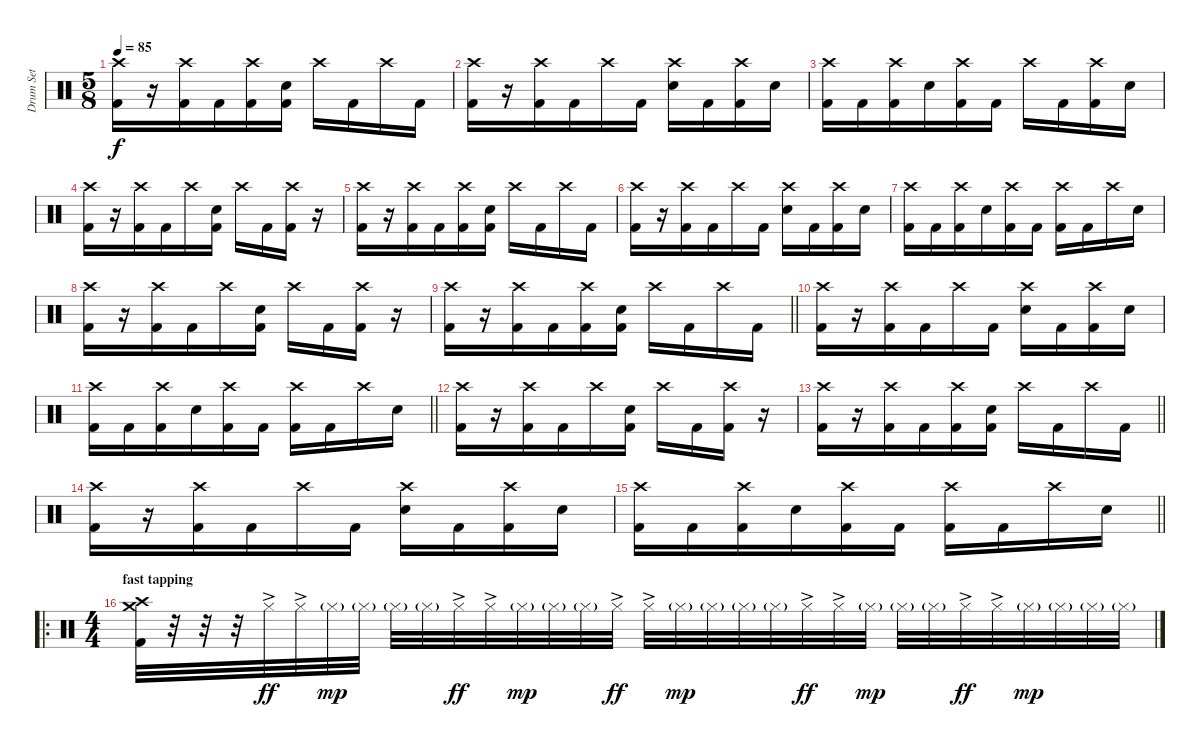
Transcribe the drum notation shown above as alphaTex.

\track ("Drum Set" "Drum Set") {instrument percussion}
\staff {score}
\articulation defaults
\ts (5 8)
\tempo 85
\clef neutral
\ks c
("Crash high (hit)" "Kick (hit) 2").16{dy f} r.16 ("Crash high (hit)" "Kick (hit) 2").16 "Kick (hit) 2".16 ("Crash high (hit)" "Kick (hit) 2").16 ("Electric Snare (hit)" "Kick (hit) 2").16 "Crash high (hit)".16 "Kick (hit) 2".16 "Crash high (hit)".16 "Kick (hit) 2".16 |
("Crash high (hit)" "Kick (hit) 2").16 r.16 ("Crash high (hit)" "Kick (hit) 2").16 "Kick (hit) 2".16 "Crash high (hit)".16 "Kick (hit) 2".16 ("Crash high (hit)" "Electric Snare (hit)").16 "Kick (hit) 2".16 ("Crash high (hit)" "Kick (hit) 2").16 "Electric Snare (hit)".16 |
("Crash high (hit)" "Kick (hit) 2").16 "Kick (hit) 2".16 ("Crash high (hit)" "Kick (hit) 2").16 "Electric Snare (hit)".16 ("Crash high (hit)" "Kick (hit) 2").16 "Kick (hit) 2".16 "Crash high (hit)".16 "Kick (hit) 2".16 ("Crash high (hit)" "Kick (hit) 2").16 "Electric Snare (hit)".16 |
("Crash high (hit)" "Kick (hit) 2").16 r.16 ("Crash high (hit)" "Kick (hit) 2").16 "Kick (hit) 2".16 "Crash high (hit)".16 ("Electric Snare (hit)" "Kick (hit) 2").16 "Crash high (hit)".16 "Kick (hit) 2".16 ("Crash high (hit)" "Kick (hit) 2").16 r.16 |
("Crash high (hit)" "Kick (hit) 2").16 r.16 ("Crash high (hit)" "Kick (hit) 2").16 "Kick (hit) 2".16 ("Crash high (hit)" "Kick (hit) 2").16 ("Electric Snare (hit)" "Kick (hit) 2").16 "Crash high (hit)".16 "Kick (hit) 2".16 "Crash high (hit)".16 "Kick (hit) 2".16 |
("Crash high (hit)" "Kick (hit) 2").16 r.16 ("Crash high (hit)" "Kick (hit) 2").16 "Kick (hit) 2".16 "Crash high (hit)".16 "Kick (hit) 2".16 ("Crash high (hit)" "Electric Snare (hit)").16 "Kick (hit) 2".16 ("Crash high (hit)" "Kick (hit) 2").16 "Electric Snare (hit)".16 |
("Crash high (hit)" "Kick (hit) 2").16 "Kick (hit) 2".16 ("Crash high (hit)" "Kick (hit) 2").16 "Electric Snare (hit)".16 ("Crash high (hit)" "Kick (hit) 2").16 "Kick (hit) 2".16 ("Crash high (hit)" "Kick (hit) 2").16 "Kick (hit) 2".16 "Crash high (hit)".16 "Electric Snare (hit)".16 |
("Crash high (hit)" "Kick (hit) 2").16 r.16 ("Crash high (hit)" "Kick (hit) 2").16 "Kick (hit) 2".16 "Crash high (hit)".16 ("Electric Snare (hit)" "Kick (hit) 2").16 "Crash high (hit)".16 "Kick (hit) 2".16 ("Crash high (hit)" "Kick (hit) 2").16 r.16 |
\barLineRight lightlight
("Crash high (hit)" "Kick (hit) 2").16 r.16 ("Crash high (hit)" "Kick (hit) 2").16 "Kick (hit) 2".16 ("Crash high (hit)" "Kick (hit) 2").16 ("Electric Snare (hit)" "Kick (hit) 2").16 "Crash high (hit)".16 "Kick (hit) 2".16 "Crash high (hit)".16 "Kick (hit) 2".16 |
("Crash high (hit)" "Kick (hit) 2").16 r.16 ("Crash high (hit)" "Kick (hit) 2").16 "Kick (hit) 2".16 "Crash high (hit)".16 "Kick (hit) 2".16 ("Crash high (hit)" "Electric Snare (hit)").16 "Kick (hit) 2".16 ("Crash high (hit)" "Kick (hit) 2").16 "Electric Snare (hit)".16 |
\barLineRight lightlight
("Crash high (hit)" "Kick (hit) 2").16 "Kick (hit) 2".16 ("Crash high (hit)" "Kick (hit) 2").16 "Electric Snare (hit)".16 ("Crash high (hit)" "Kick (hit) 2").16 "Kick (hit) 2".16 ("Crash high (hit)" "Kick (hit) 2").16 "Kick (hit) 2".16 "Crash high (hit)".16 "Electric Snare (hit)".16 |
("Crash high (hit)" "Kick (hit) 2").16 r.16 ("Crash high (hit)" "Kick (hit) 2").16 "Kick (hit) 2".16 "Crash high (hit)".16 ("Electric Snare (hit)" "Kick (hit) 2").16 "Crash high (hit)".16 "Kick (hit) 2".16 ("Crash high (hit)" "Kick (hit) 2").16 r.16 |
\barLineRight lightlight
("Crash high (hit)" "Kick (hit) 2").16 r.16 ("Crash high (hit)" "Kick (hit) 2").16 "Kick (hit) 2".16 ("Crash high (hit)" "Kick (hit) 2").16 ("Electric Snare (hit)" "Kick (hit) 2").16 "Crash high (hit)".16 "Kick (hit) 2".16 "Crash high (hit)".16 "Kick (hit) 2".16 |
("Crash high (hit)" "Kick (hit) 2").16 r.16 ("Crash high (hit)" "Kick (hit) 2").16 "Kick (hit) 2".16 "Crash high (hit)".16 "Kick (hit) 2".16 ("Crash high (hit)" "Electric Snare (hit)").16 "Kick (hit) 2".16 ("Crash high (hit)" "Kick (hit) 2").16 "Electric Snare (hit)".16 |
\barLineRight lightlight
("Crash high (hit)" "Kick (hit) 2").16 "Kick (hit) 2".16 ("Crash high (hit)" "Kick (hit) 2").16 "Electric Snare (hit)".16 ("Crash high (hit)" "Kick (hit) 2").16 "Kick (hit) 2".16 ("Crash high (hit)" "Kick (hit) 2").16 "Kick (hit) 2".16 "Crash high (hit)".16 "Electric Snare (hit)".16 |
\ro
\ts (4 4)
\section ("" "fast tapping ")
("Crash high (hit)" "Crash medium (hit)" "Kick (hit) 2").32 r.32 r.32 r.32 "Hi-Hat (closed)"{ac}.32{dy ff} "Hi-Hat (closed)"{ac}.32 "Hi-Hat (closed)"{g}.32{dy mp} "Hi-Hat (closed)"{g}.32 "Hi-Hat (closed)"{g}.32 "Hi-Hat (closed)"{g}.32 "Hi-Hat (closed)"{ac}.32{dy ff} "Hi-Hat (closed)"{ac}.32 "Hi-Hat (closed)"{g}.32{dy mp} "Hi-Hat (closed)"{g}.32 "Hi-Hat (closed)"{g}.32 "Hi-Hat (closed)"{ac}.32{dy ff} "Hi-Hat (closed)"{ac}.32 "Hi-Hat (closed)"{g}.32{dy mp} "Hi-Hat (closed)"{g}.32 "Hi-Hat (closed)"{g}.32 "Hi-Hat (closed)"{g}.32 "Hi-Hat (closed)"{ac}.32{dy ff} "Hi-Hat (closed)"{ac}.32 "Hi-Hat (closed)"{g}.32{dy mp} "Hi-Hat (closed)"{g}.32 "Hi-Hat (closed)"{g}.32 "Hi-Hat (closed)"{ac}.32{dy ff} "Hi-Hat (closed)"{ac}.32 "Hi-Hat (closed)"{g}.32{dy mp} "Hi-Hat (closed)"{g}.32 "Hi-Hat (closed)"{g}.32 "Hi-Hat (closed)"{g}.32
